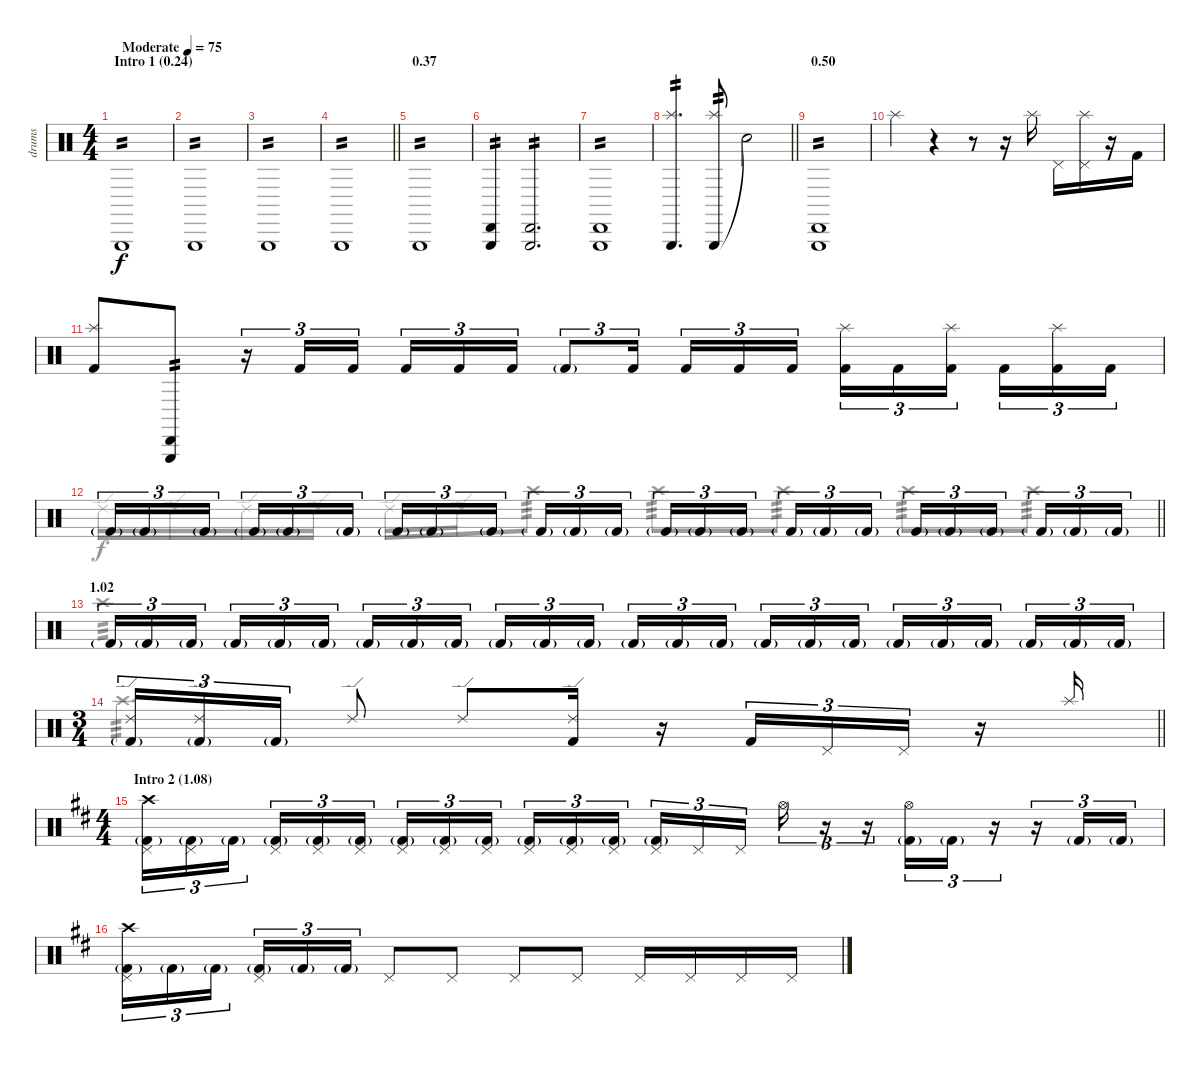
\track ("drums" "drums") {instrument percussion}
\staff {score}
\articulation defaults
\voice
\ts (4 4)
\section ("" "Intro 1 (0.24)")
\tempo (75 "Moderate")
\clef neutral
\ks c "Triangle (hit)".1{tp 2 dy f}
|
"Triangle (hit)".1{tp 2} |
"Triangle (hit)".1{tp 2} |
\barLineRight lightlight "Triangle (hit)".1{tp 2}
|
\section ("" "0.37")
"Triangle (hit)".1{tp 2} |
("Cabasa (hit)" "Triangle (hit)").4{tp 2} ("Cabasa (hit)" "Triangle (hit)").2{d tp 2} |
("Cabasa (hit)" "Triangle (hit)").1{tp 2} |
\barLineRight lightlight
("Triangle (hit)" "Splash (hit)").4{d tp 2} ("Triangle (hit)" "Splash (hit)").8{tp 2} "Snare (hit)"{t}.2 |
\section ("" "0.50")
("Cabasa (hit)" "Triangle (hit)").1{tp 2} |
"Splash (hit)".4 r.4 r.8 r.16 "Splash (hit)".16 "Pedal Hi-Hat (hit)".16 ("Pedal Hi-Hat (hit)" "Splash (hit)").16 r.16 "Kick (hit) 2".16 |
("Splash (hit)" "Kick (hit) 2").8 ("Cabasa (hit)" "Triangle (hit)").8{tp 2} r.16{tu (3 2)} "Kick (hit) 2".16{tu (3 2)} "Kick (hit) 2".16{tu (3 2) beam splitsecondary} "Kick (hit) 2".16{tu (3 2)} "Kick (hit) 2".16{tu (3 2)} "Kick (hit) 2".16{tu (3 2)} "Kick (hit) 2"{g}.8{tu (3 2)} "Kick (hit) 2".16{tu (3 2) beam splitsecondary} "Kick (hit) 2".16{tu (3 2)} "Kick (hit) 2".16{tu (3 2)} "Kick (hit) 2".16{tu (3 2)} ("Splash (hit)" "Kick (hit) 2").16{tu (3 2)} "Kick (hit) 2".16{tu (3 2)} ("Splash (hit)" "Kick (hit) 2").16{tu (3 2) beam splitsecondary} "Kick (hit) 2".16{tu (3 2)} ("Splash (hit)" "Kick (hit) 2").16{tu (3 2)} "Kick (hit) 2".16{tu (3 2)} |
\barLineRight lightlight "Kick (hit) 2"{g}.16{tu (3 2)} "Kick (hit) 2"{g}.16{tu (3 2)} "Kick (hit) 2"{g}.16{tu (3 2) beam splitsecondary} "Kick (hit) 2"{g}.16{tu (3 2)} "Kick (hit) 2"{g}.16{tu (3 2)} "Kick (hit) 2"{g}.16{tu (3 2)} "Kick (hit) 2"{g}.16{tu (3 2)} "Kick (hit) 2"{g}.16{tu (3 2)} "Kick (hit) 2"{g}.16{tu (3 2) beam splitsecondary} "Kick (hit) 2"{g}.16{tu (3 2)} "Kick (hit) 2"{g}.16{tu (3 2)} "Kick (hit) 2"{g}.16{tu (3 2)} "Kick (hit) 2"{g}.16{tu (3 2)} "Kick (hit) 2"{g}.16{tu (3 2)} "Kick (hit) 2"{g}.16{tu (3 2) beam splitsecondary} "Kick (hit) 2"{g}.16{tu (3 2)} "Kick (hit) 2"{g}.16{tu (3 2)} "Kick (hit) 2"{g}.16{tu (3 2)} "Kick (hit) 2"{g}.16{tu (3 2)} "Kick (hit) 2"{g}.16{tu (3 2)} "Kick (hit) 2"{g}.16{tu (3 2) beam splitsecondary} "Kick (hit) 2"{g}.16{tu (3 2)} "Kick (hit) 2"{g}.16{tu (3 2)} "Kick (hit) 2"{g}.16{tu (3 2)}
|
\section ("" "1.02")
"Kick (hit) 2"{g}.16{tu (3 2)} "Kick (hit) 2"{g}.16{tu (3 2)} "Kick (hit) 2"{g}.16{tu (3 2) beam splitsecondary} "Kick (hit) 2"{g}.16{tu (3 2)} "Kick (hit) 2"{g}.16{tu (3 2)} "Kick (hit) 2"{g}.16{tu (3 2)} "Kick (hit) 2"{g}.16{tu (3 2)} "Kick (hit) 2"{g}.16{tu (3 2)} "Kick (hit) 2"{g}.16{tu (3 2) beam splitsecondary} "Kick (hit) 2"{g}.16{tu (3 2)} "Kick (hit) 2"{g}.16{tu (3 2)} "Kick (hit) 2"{g}.16{tu (3 2)} "Kick (hit) 2"{g}.16{tu (3 2)} "Kick (hit) 2"{g}.16{tu (3 2)} "Kick (hit) 2"{g}.16{tu (3 2) beam splitsecondary} "Kick (hit) 2"{g}.16{tu (3 2)} "Kick (hit) 2"{g}.16{tu (3 2)} "Kick (hit) 2"{g}.16{tu (3 2)} "Kick (hit) 2"{g}.16{tu (3 2)} "Kick (hit) 2"{g}.16{tu (3 2)} "Kick (hit) 2"{g}.16{tu (3 2) beam splitsecondary} "Kick (hit) 2"{g}.16{tu (3 2)} "Kick (hit) 2"{g}.16{tu (3 2)} "Kick (hit) 2"{g}.16{tu (3 2)} |
\ts (3 4)
\barLineRight lightlight
("Ride (edge) 2" "Kick (hit) 2"{g}).16{tu (3 2)} ("Ride (edge) 2" "Kick (hit) 2"{g}).16{tu (3 2)} "Kick (hit) 2"{g}.16{tu (3 2)} "Ride (edge) 2".8 "Ride (edge) 2".8 ("Ride (edge) 2" "Kick (hit) 2").16 r.16 "Kick (hit) 2".16{tu (3 2)} "Pedal Hi-Hat (hit)".16{tu (3 2)} "Pedal Hi-Hat (hit)".16{tu (3 2)} r.16 "Splash (hit)".16 |
\ts (4 4)
\section ("" "Intro 2 (1.08)")
\ks d
("Pedal Hi-Hat (hit)" "Crash high (hit)" "Kick (hit) 2"{g}).16{tu (3 2)} ("Pedal Hi-Hat (hit)" "Kick (hit) 2"{g}).16{tu (3 2)} "Kick (hit) 2"{g}.16{tu (3 2) beam splitsecondary} ("Pedal Hi-Hat (hit)" "Kick (hit) 2"{g}).16{tu (3 2)} ("Pedal Hi-Hat (hit)" "Kick (hit) 2"{g}).16{tu (3 2)} ("Pedal Hi-Hat (hit)" "Kick (hit) 2"{g}).16{tu (3 2)} ("Pedal Hi-Hat (hit)" "Kick (hit) 2"{g}).16{tu (3 2)} ("Pedal Hi-Hat (hit)" "Kick (hit) 2"{g}).16{tu (3 2)} ("Pedal Hi-Hat (hit)" "Kick (hit) 2"{g}).16{tu (3 2) beam splitsecondary} ("Pedal Hi-Hat (hit)" "Kick (hit) 2"{g}).16{tu (3 2)} ("Pedal Hi-Hat (hit)" "Kick (hit) 2"{g}).16{tu (3 2)} ("Pedal Hi-Hat (hit)" "Kick (hit) 2"{g}).16{tu (3 2)} ("Pedal Hi-Hat (hit)" "Kick (hit) 2"{g}).16{tu (3 2)} "Pedal Hi-Hat (hit)".16{tu (3 2)} "Pedal Hi-Hat (hit)".16{tu (3 2) beam splitsecondary} "Hi-Hat (open)".16{tu (3 2)} r.16{tu (3 2)} r.16{tu (3 2)} ("Hi-Hat (open)" "Kick (hit) 2"{g}).16{tu (3 2)} "Kick (hit) 2"{g}.16{tu (3 2)} r.16{tu (3 2)} r.16{tu (3 2)} "Kick (hit) 2"{g}.16{tu (3 2)} "Kick (hit) 2"{g}.16{tu (3 2)} |
("Pedal Hi-Hat (hit)" "Crash high (hit)" "Kick (hit) 2"{g}).16{tu (3 2)} "Kick (hit) 2"{g}.16{tu (3 2)} "Kick (hit) 2"{g}.16{tu (3 2) beam splitsecondary} ("Pedal Hi-Hat (hit)" "Kick (hit) 2"{g}).16{tu (3 2)} "Kick (hit) 2"{g}.16{tu (3 2)} "Kick (hit) 2"{g}.16{tu (3 2)} "Pedal Hi-Hat (hit)".8 "Pedal Hi-Hat (hit)".8 "Pedal Hi-Hat (hit)".8 "Pedal Hi-Hat (hit)".8 "Pedal Hi-Hat (hit)".16 "Pedal Hi-Hat (hit)".16 "Pedal Hi-Hat (hit)".16 "Pedal Hi-Hat (hit)".16
\voice
\clef neutral
\ottava regular
\simile none
\ks c
|
|
|
\barLineRight lightlight
|
|
|
|
\barLineRight lightlight
|
|
|
|
\barLineRight lightlight "Ride (edge) 2".16 "Ride (edge) 2".16 "Ride (edge) 2".16 "Ride (edge) 2".16 "Ride (edge) 2".16 "Ride (edge) 2".16 "Crash high (hit)".8{tp 3} "Crash high (hit)".8{tp 3} "Crash high (hit)".8{tp 3} "Crash high (hit)".8{tp 3} "Crash high (hit)".8{tp 3}
|
"Crash high (hit)".1{tp 3} |
\barLineRight lightlight "Crash high (hit)".2{d tp 3}
|
\ks d
|
